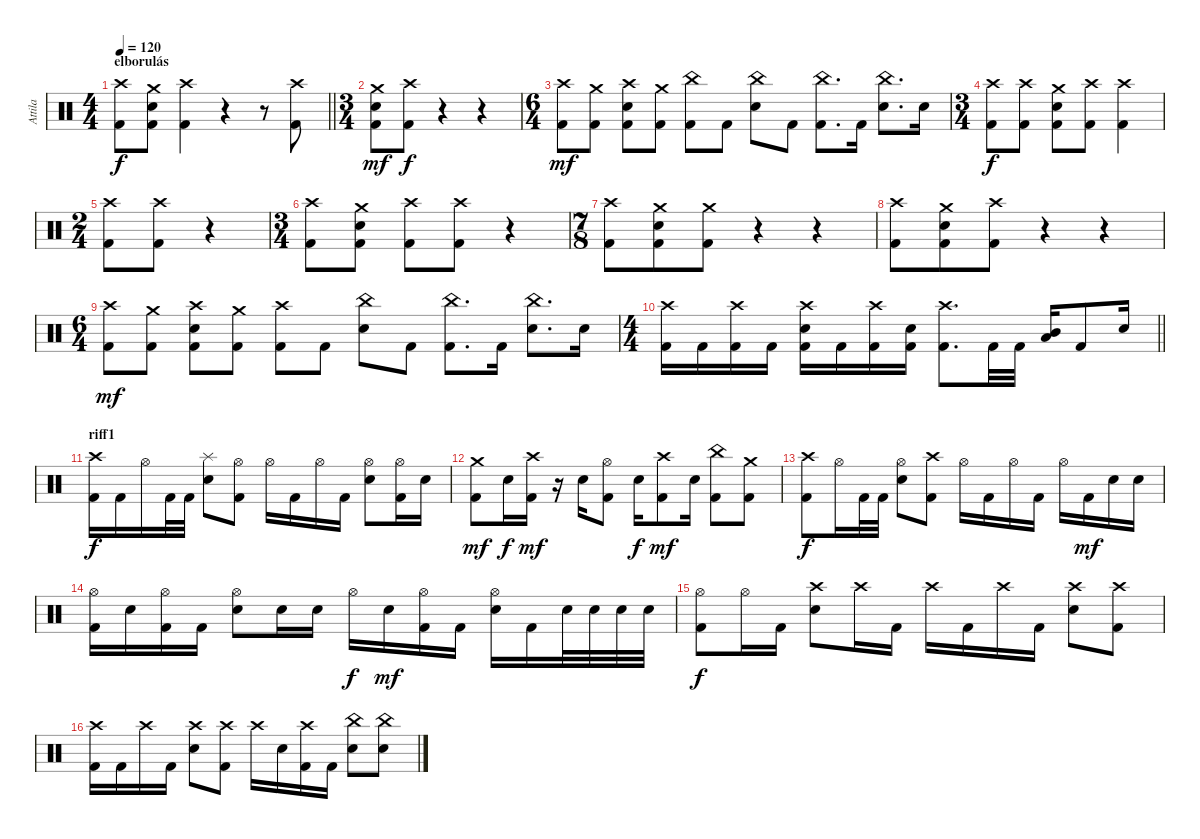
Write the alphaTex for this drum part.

\track ("Attila" "Attila") {instrument percussion}
\staff {score}
\articulation defaults
\ts (4 4)
\section ("" "elborulás")
\tempo 120
\clef neutral
\barLineRight lightlight
\ks c
("Crash high (hit)" "Kick (hit) 2").8{dy f} ("Crash medium (hit)" "Electric Snare (hit)" "Kick (hit) 2").8 ("Crash high (hit)" "Kick (hit) 2").4 r.4 r.8 ("Crash high (hit)" "Kick (hit) 2").8 |
\ts (3 4)
("Crash medium (hit)" "Electric Snare (hit)" "Kick (hit) 2").8{dy mf} ("Crash high (hit)" "Kick (hit) 2").8{dy f} r.4 r.4 |
\ts (6 4)
("Crash high (hit)" "Kick (hit) 2").8{dy mf} ("Crash medium (hit)" "Kick (hit) 2").8 ("Crash high (hit)" "Electric Snare (hit)" "Kick (hit) 2").8 ("Crash medium (hit)" "Kick (hit) 2").8 ("China (hit)" "Kick (hit) 2").8 "Kick (hit) 2".8 ("China (hit)" "Electric Snare (hit)").8 "Kick (hit) 2".8 ("China (hit)" "Kick (hit) 2").8{d} "Kick (hit) 2".16 ("China (hit)" "Electric Snare (hit)").8{d} "Electric Snare (hit)".16 |
\ts (3 4)
("Crash high (hit)" "Kick (hit) 2").8{dy f} ("Crash high (hit)" "Kick (hit) 2").8 ("Crash medium (hit)" "Electric Snare (hit)" "Kick (hit) 2").8 ("Crash high (hit)" "Kick (hit) 2").8 ("Crash high (hit)" "Kick (hit) 2").4 |
\ts (2 4)
("Crash high (hit)" "Kick (hit) 2").8 ("Crash high (hit)" "Kick (hit) 2").8 r.4 |
\ts (3 4)
("Crash high (hit)" "Kick (hit) 2").8 ("Crash medium (hit)" "Electric Snare (hit)" "Kick (hit) 2").8 ("Crash high (hit)" "Kick (hit) 2").8 ("Crash high (hit)" "Kick (hit) 2").8 r.4 |
\ts (7 8)
("Crash high (hit)" "Kick (hit) 2").8 ("Crash medium (hit)" "Electric Snare (hit)" "Kick (hit) 2").8 ("Crash medium (hit)" "Kick (hit) 2").8 r.4 r.4 |
("Crash high (hit)" "Kick (hit) 2").8 ("Crash medium (hit)" "Electric Snare (hit)" "Kick (hit) 2").8 ("Crash high (hit)" "Kick (hit) 2").8 r.4 r.4 |
\ts (6 4)
("Crash high (hit)" "Kick (hit) 2").8{dy mf} ("Crash medium (hit)" "Kick (hit) 2").8 ("Crash high (hit)" "Electric Snare (hit)" "Kick (hit) 2").8 ("Crash medium (hit)" "Kick (hit) 2").8 ("Crash high (hit)" "Kick (hit) 2").8 "Kick (hit) 2".8 ("China (hit)" "Electric Snare (hit)").8 "Kick (hit) 2".8 ("China (hit)" "Kick (hit) 2").8{d} "Kick (hit) 2".16 ("China (hit)" "Electric Snare (hit)").8{d} "Electric Snare (hit)".16 |
\ts (4 4)
\barLineRight lightlight
("Crash high (hit)" "Kick (hit) 2").16 "Kick (hit) 2".16 ("Crash high (hit)" "Kick (hit) 2").16 "Kick (hit) 2".16 ("Crash high (hit)" "Electric Snare (hit)" "Kick (hit) 2").16 "Kick (hit) 2".16 ("Crash high (hit)" "Kick (hit) 2").16 ("Electric Snare (hit)" "Kick (hit) 2").16 ("Crash high (hit)" "Kick (hit) 2").8{d} "Kick (hit) 2".32 "Kick (hit) 2".32 ("Mid Tom (hit)" "Low Tom (hit)").16 "Kick (hit) 2".8 "Electric Snare (hit)".16 |
\section ("" "riff1")
("Crash high (hit)" "Kick (hit) 2").16{dy f} "Kick (hit) 2".16 "Hi-Hat (open)".16 "Kick (hit) 2".32 "Kick (hit) 2".32 ("Splash (hit)" "Electric Snare (hit)").8 ("Hi-Hat (open)" "Kick (hit) 2").8 "Hi-Hat (open)".16 "Kick (hit) 2".16 "Hi-Hat (open)".16 "Kick (hit) 2".16 ("Hi-Hat (open)" "Electric Snare (hit)").8 ("Hi-Hat (open)" "Kick (hit) 2").16 "Electric Snare (hit)".16 |
("Crash medium (hit)" "Kick (hit) 2").8{dy mf} "Electric Snare (hit)".16{dy f} ("Crash high (hit)" "Kick (hit) 2").16{dy mf} r.16 "Electric Snare (hit)".16 ("Hi-Hat (open)" "Kick (hit) 2").8 "Electric Snare (hit)".16{dy f} ("Crash high (hit)" "Kick (hit) 2").8{dy mf} "Electric Snare (hit)".16 ("China (hit)" "Kick (hit) 2").8 ("Crash medium (hit)" "Kick (hit) 2").8 |
("Crash high (hit)" "Kick (hit) 2").8{dy f} "Hi-Hat (open)".16 "Kick (hit) 2".32 "Kick (hit) 2".32 ("Hi-Hat (open)" "Electric Snare (hit)").8 ("Crash high (hit)" "Kick (hit) 2").8 "Hi-Hat (open)".16 "Kick (hit) 2".16 "Hi-Hat (open)".16 "Kick (hit) 2".16 "Hi-Hat (open)".16 "Kick (hit) 2".16{dy mf} "Electric Snare (hit)".16 "Electric Snare (hit)".16 |
("Hi-Hat (open)" "Kick (hit) 2").16 "Electric Snare (hit)".16 ("Hi-Hat (open)" "Kick (hit) 2").16 "Kick (hit) 2".16 ("Hi-Hat (open)" "Electric Snare (hit)").8 "Electric Snare (hit)".16 "Electric Snare (hit)".16 "Hi-Hat (open)".16{dy f} "Electric Snare (hit)".16{dy mf} ("Hi-Hat (open)" "Kick (hit) 2").16 "Kick (hit) 2".16 ("Hi-Hat (open)" "Electric Snare (hit)").16 "Kick (hit) 2".16 "Electric Snare (hit)".32 "Electric Snare (hit)".32 "Electric Snare (hit)".32 "Electric Snare (hit)".32 |
("Hi-Hat (open)" "Kick (hit) 2").8{dy f} "Hi-Hat (open)".16 "Kick (hit) 2".16 ("Crash high (hit)" "Electric Snare (hit)").8 "Crash high (hit)".16 "Kick (hit) 2".16 "Crash high (hit)".16 "Kick (hit) 2".16 "Crash high (hit)".16 "Kick (hit) 2".16 ("Crash high (hit)" "Electric Snare (hit)").8 ("Crash high (hit)" "Kick (hit) 2").8 |
("Crash high (hit)" "Kick (hit) 2").16 "Kick (hit) 2".16 "Crash high (hit)".16 "Kick (hit) 2".16 ("Crash high (hit)" "Electric Snare (hit)").8 ("Crash high (hit)" "Kick (hit) 2").8 "Crash high (hit)".16 "Electric Snare (hit)".16 ("Crash high (hit)" "Kick (hit) 2").16 "Kick (hit) 2".16 ("China (hit)" "Electric Snare (hit)").8 ("China (hit)" "Electric Snare (hit)").8
